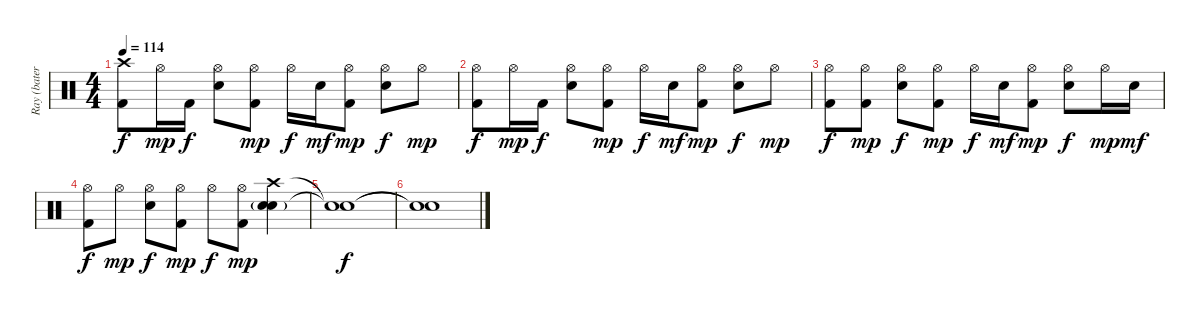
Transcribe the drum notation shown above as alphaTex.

\track ("Ray (batería)" "Ray (bater") {instrument percussion}
\staff {score}
\articulation defaults
\ts (4 4)
\tempo 114
\clef neutral
\ks c
("Crash high (hit)" "Kick (hit) 2").8{dy f} "Hi-Hat (open)".16{dy mp} "Kick (hit) 2".16{dy f} ("Hi-Hat (open)" "Snare (hit) 2").8 ("Hi-Hat (open)" "Kick (hit) 2").8{dy mp} "Hi-Hat (open)".16{dy f} "Snare (hit) 2".16{dy mf} ("Hi-Hat (open)" "Kick (hit) 2").8{dy mp} ("Hi-Hat (open)" "Snare (hit) 2").8{dy f} "Hi-Hat (open)".8{dy mp} |
("Hi-Hat (open)" "Kick (hit) 2").8{dy f} "Hi-Hat (open)".16{dy mp} "Kick (hit) 2".16{dy f} ("Hi-Hat (open)" "Snare (hit) 2").8 ("Hi-Hat (open)" "Kick (hit) 2").8{dy mp} "Hi-Hat (open)".16{dy f} "Snare (hit) 2".16{dy mf} ("Hi-Hat (open)" "Kick (hit) 2").8{dy mp} ("Hi-Hat (open)" "Snare (hit) 2").8{dy f} "Hi-Hat (open)".8{dy mp} |
("Hi-Hat (open)" "Kick (hit) 2").8{dy f} ("Hi-Hat (open)" "Kick (hit) 2").8{dy mp} ("Hi-Hat (open)" "Snare (hit) 2").8{dy f} ("Hi-Hat (open)" "Kick (hit) 2").8{dy mp} "Hi-Hat (open)".16{dy f} "Snare (hit) 2".16{dy mf} ("Hi-Hat (open)" "Kick (hit) 2").8{dy mp} ("Hi-Hat (open)" "Snare (hit) 2").8{dy f} "Hi-Hat (open)".16{dy mp} "Snare (hit) 2".16{dy mf} |
("Hi-Hat (open)" "Kick (hit) 2").8{dy f} "Hi-Hat (open)".8{dy mp} ("Hi-Hat (open)" "Snare (hit) 2").8{dy f} ("Hi-Hat (open)" "Kick (hit) 2").8{dy mp} "Hi-Hat (open)".8{dy f} ("Hi-Hat (open)" "Kick (hit) 2").8{dy mp} ("Crash high (hit)" "Electric Snare (hit)"{g} "Snare (hit) 2").4 |
("Snare (hit)"{t} "Snare (hit)"{t}).1{dy f} |
("Snare (hit)"{t} "Snare (hit)"{t}).1
